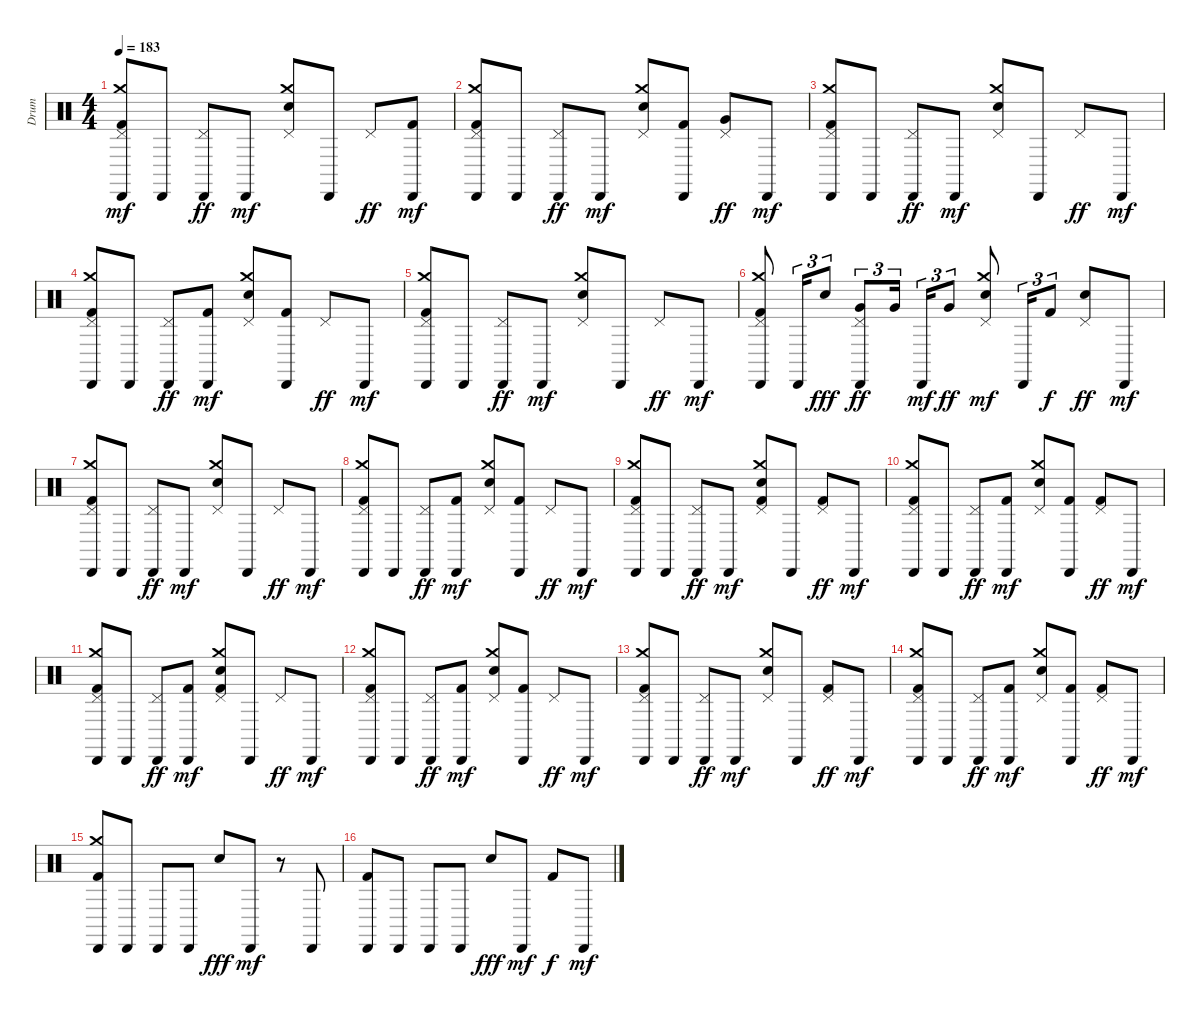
\track ("Drum" "Drum") {instrument percussion}
\staff {score}
\articulation defaults
\ts (4 4)
\tempo 183
\clef neutral
\ks c
("Cabasa (hit)" "Kick (hit) 2" "Pedal Hi-Hat (hit)" "Crash medium (hit)").8{dy mf} "Cabasa (hit)".8 ("Cabasa (hit)" "Pedal Hi-Hat (hit)").8{dy ff} "Cabasa (hit)".8{dy mf} ("Electric Snare (hit)" "Pedal Hi-Hat (hit)" "Crash medium (hit)").8 "Cabasa (hit)".8 "Pedal Hi-Hat (hit)".8{dy ff} ("Cabasa (hit)" "Kick (hit) 2").8{dy mf} |
("Cabasa (hit)" "Kick (hit) 2" "Pedal Hi-Hat (hit)" "Crash medium (hit)").8 "Cabasa (hit)".8 ("Cabasa (hit)" "Pedal Hi-Hat (hit)").8{dy ff} "Cabasa (hit)".8{dy mf} ("Electric Snare (hit)" "Pedal Hi-Hat (hit)" "Crash medium (hit)").8 ("Cabasa (hit)" "Kick (hit) 2").8 ("Very Low Tom (hit)" "Pedal Hi-Hat (hit)").8{dy ff} "Cabasa (hit)".8{dy mf} |
("Cabasa (hit)" "Kick (hit) 2" "Pedal Hi-Hat (hit)" "Crash medium (hit)").8 "Cabasa (hit)".8 ("Cabasa (hit)" "Pedal Hi-Hat (hit)").8{dy ff} "Cabasa (hit)".8{dy mf} ("Electric Snare (hit)" "Pedal Hi-Hat (hit)" "Crash medium (hit)").8 "Cabasa (hit)".8 "Pedal Hi-Hat (hit)".8{dy ff} "Cabasa (hit)".8{dy mf} |
("Cabasa (hit)" "Kick (hit) 2" "Pedal Hi-Hat (hit)" "Crash medium (hit)").8 "Cabasa (hit)".8 ("Cabasa (hit)" "Pedal Hi-Hat (hit)").8{dy ff} ("Cabasa (hit)" "Kick (hit) 2").8{dy mf} ("Electric Snare (hit)" "Pedal Hi-Hat (hit)" "Crash medium (hit)").8 ("Cabasa (hit)" "Kick (hit) 2").8 "Pedal Hi-Hat (hit)".8{dy ff} "Cabasa (hit)".8{dy mf} |
("Cabasa (hit)" "Kick (hit) 2" "Pedal Hi-Hat (hit)" "Crash medium (hit)").8 "Cabasa (hit)".8 ("Cabasa (hit)" "Pedal Hi-Hat (hit)").8{dy ff} "Cabasa (hit)".8{dy mf} ("Electric Snare (hit)" "Pedal Hi-Hat (hit)" "Crash medium (hit)").8 "Cabasa (hit)".8 "Pedal Hi-Hat (hit)".8{dy ff} "Cabasa (hit)".8{dy mf} |
("Cabasa (hit)" "Kick (hit) 2" "Pedal Hi-Hat (hit)" "Crash medium (hit)").8 "Cabasa (hit)".16{tu (3 2)} "Electric Snare (hit)".8{tu (3 2) dy fff} ("Cabasa (hit)" "Very Low Tom (hit)" "Pedal Hi-Hat (hit)").8{tu (3 2) dy ff} "Very Low Tom (hit)".16{tu (3 2) beam splitsecondary} "Cabasa (hit)".16{tu (3 2) dy mf} "Very Low Tom (hit)".8{tu (3 2) dy ff} ("Electric Snare (hit)" "Pedal Hi-Hat (hit)" "Crash medium (hit)").8{dy mf} "Cabasa (hit)".16{tu (3 2)} "Kick (hit) 2".8{tu (3 2) dy f} ("Electric Snare (hit)" "Pedal Hi-Hat (hit)").8{dy ff} "Cabasa (hit)".8{dy mf} |
("Cabasa (hit)" "Kick (hit) 2" "Pedal Hi-Hat (hit)" "Crash medium (hit)").8 "Cabasa (hit)".8 ("Cabasa (hit)" "Pedal Hi-Hat (hit)").8{dy ff} "Cabasa (hit)".8{dy mf} ("Electric Snare (hit)" "Pedal Hi-Hat (hit)" "Crash medium (hit)").8 "Cabasa (hit)".8 "Pedal Hi-Hat (hit)".8{dy ff} "Cabasa (hit)".8{dy mf} |
("Cabasa (hit)" "Kick (hit) 2" "Pedal Hi-Hat (hit)" "Crash medium (hit)").8 "Cabasa (hit)".8 ("Cabasa (hit)" "Pedal Hi-Hat (hit)").8{dy ff} ("Cabasa (hit)" "Kick (hit) 2").8{dy mf} ("Electric Snare (hit)" "Pedal Hi-Hat (hit)" "Crash medium (hit)").8 ("Cabasa (hit)" "Kick (hit) 2").8 "Pedal Hi-Hat (hit)".8{dy ff} "Cabasa (hit)".8{dy mf} |
("Cabasa (hit)" "Kick (hit) 2" "Pedal Hi-Hat (hit)" "Crash medium (hit)").8 "Cabasa (hit)".8 ("Cabasa (hit)" "Pedal Hi-Hat (hit)").8{dy ff} "Cabasa (hit)".8{dy mf} ("Kick (hit) 2" "Electric Snare (hit)" "Pedal Hi-Hat (hit)" "Crash medium (hit)").8 "Cabasa (hit)".8 ("Kick (hit) 2" "Pedal Hi-Hat (hit)").8{dy ff} "Cabasa (hit)".8{dy mf} |
("Cabasa (hit)" "Kick (hit) 2" "Pedal Hi-Hat (hit)" "Crash medium (hit)").8 "Cabasa (hit)".8 ("Cabasa (hit)" "Pedal Hi-Hat (hit)").8{dy ff} ("Cabasa (hit)" "Kick (hit) 2").8{dy mf} ("Electric Snare (hit)" "Pedal Hi-Hat (hit)" "Crash medium (hit)").8 ("Cabasa (hit)" "Kick (hit) 2").8 ("Kick (hit) 2" "Pedal Hi-Hat (hit)").8{dy ff} "Cabasa (hit)".8{dy mf} |
("Cabasa (hit)" "Kick (hit) 2" "Pedal Hi-Hat (hit)" "Crash medium (hit)").8 "Cabasa (hit)".8 ("Cabasa (hit)" "Pedal Hi-Hat (hit)").8{dy ff} ("Cabasa (hit)" "Kick (hit) 2").8{dy mf} ("Kick (hit) 2" "Electric Snare (hit)" "Pedal Hi-Hat (hit)" "Crash medium (hit)").8 "Cabasa (hit)".8 "Pedal Hi-Hat (hit)".8{dy ff} "Cabasa (hit)".8{dy mf} |
("Cabasa (hit)" "Kick (hit) 2" "Pedal Hi-Hat (hit)" "Crash medium (hit)").8 "Cabasa (hit)".8 ("Cabasa (hit)" "Pedal Hi-Hat (hit)").8{dy ff} ("Cabasa (hit)" "Kick (hit) 2").8{dy mf} ("Electric Snare (hit)" "Pedal Hi-Hat (hit)" "Crash medium (hit)").8 ("Cabasa (hit)" "Kick (hit) 2").8 "Pedal Hi-Hat (hit)".8{dy ff} "Cabasa (hit)".8{dy mf} |
("Cabasa (hit)" "Kick (hit) 2" "Pedal Hi-Hat (hit)" "Crash medium (hit)").8 "Cabasa (hit)".8 ("Cabasa (hit)" "Pedal Hi-Hat (hit)").8{dy ff} "Cabasa (hit)".8{dy mf} ("Electric Snare (hit)" "Pedal Hi-Hat (hit)" "Crash medium (hit)").8 "Cabasa (hit)".8 ("Kick (hit) 2" "Pedal Hi-Hat (hit)").8{dy ff} "Cabasa (hit)".8{dy mf} |
("Cabasa (hit)" "Kick (hit) 2" "Pedal Hi-Hat (hit)" "Crash medium (hit)").8 "Cabasa (hit)".8 ("Cabasa (hit)" "Pedal Hi-Hat (hit)").8{dy ff} ("Cabasa (hit)" "Kick (hit) 2").8{dy mf} ("Electric Snare (hit)" "Pedal Hi-Hat (hit)" "Crash medium (hit)").8 ("Cabasa (hit)" "Kick (hit) 2").8 ("Kick (hit) 2" "Pedal Hi-Hat (hit)").8{dy ff} "Cabasa (hit)".8{dy mf} |
("Cabasa (hit)" "Kick (hit) 2" "Crash medium (hit)").8 "Cabasa (hit)".8 "Cabasa (hit)".8 "Cabasa (hit)".8 "Electric Snare (hit)".8{dy fff} "Cabasa (hit)".8{dy mf} r.8 "Cabasa (hit)".8 |
("Cabasa (hit)" "Kick (hit) 2").8 "Cabasa (hit)".8 "Cabasa (hit)".8 "Cabasa (hit)".8 "Electric Snare (hit)".8{dy fff} "Cabasa (hit)".8{dy mf} "Kick (hit) 2".8{dy f} "Cabasa (hit)".8{dy mf}
